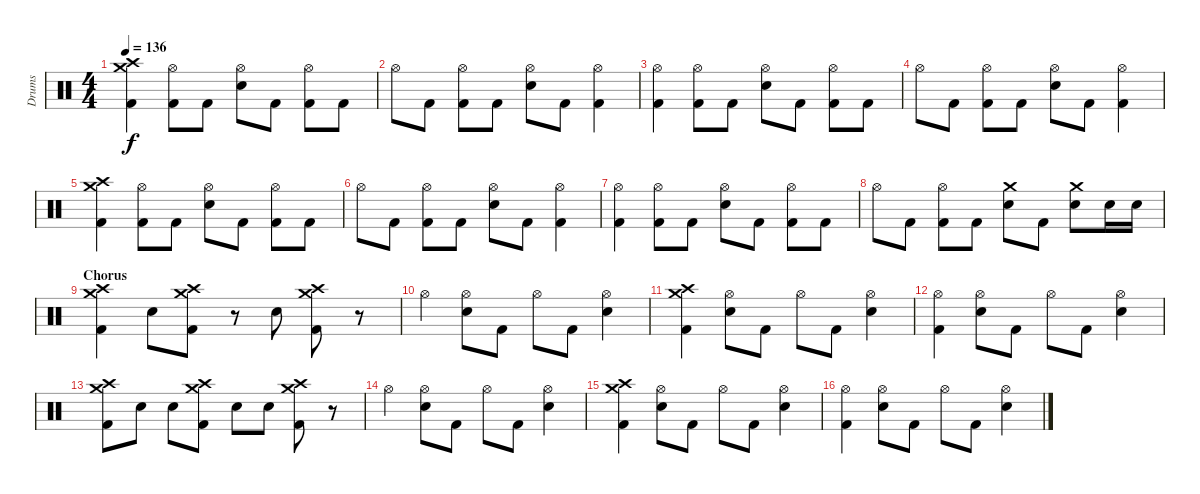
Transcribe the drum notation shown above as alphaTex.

\track ("Drums" "Drums") {instrument percussion}
\staff {score}
\articulation defaults
\ts (4 4)
\tempo 136
\clef neutral
\ks c
("Crash high (hit)" "Crash medium (hit)" "Kick (hit) 2").4{dy f} ("Hi-Hat (open)" "Kick (hit) 2").8 "Kick (hit) 2".8 ("Hi-Hat (open)" "Electric Snare (hit)").8 "Kick (hit) 2".8 ("Hi-Hat (open)" "Kick (hit) 2").8 "Kick (hit) 2".8 |
"Hi-Hat (open)".8 "Kick (hit) 2".8 ("Hi-Hat (open)" "Kick (hit) 2").8 "Kick (hit) 2".8 ("Hi-Hat (open)" "Electric Snare (hit)").8 "Kick (hit) 2".8 ("Hi-Hat (open)" "Kick (hit) 2").4 |
("Hi-Hat (open)" "Kick (hit) 2").4 ("Hi-Hat (open)" "Kick (hit) 2").8 "Kick (hit) 2".8 ("Hi-Hat (open)" "Electric Snare (hit)").8 "Kick (hit) 2".8 ("Hi-Hat (open)" "Kick (hit) 2").8 "Kick (hit) 2".8 |
"Hi-Hat (open)".8 "Kick (hit) 2".8 ("Hi-Hat (open)" "Kick (hit) 2").8 "Kick (hit) 2".8 ("Hi-Hat (open)" "Electric Snare (hit)").8 "Kick (hit) 2".8 ("Hi-Hat (open)" "Kick (hit) 2").4 |
("Crash high (hit)" "Crash medium (hit)" "Kick (hit) 2").4 ("Hi-Hat (open)" "Kick (hit) 2").8 "Kick (hit) 2".8 ("Hi-Hat (open)" "Electric Snare (hit)").8 "Kick (hit) 2".8 ("Hi-Hat (open)" "Kick (hit) 2").8 "Kick (hit) 2".8 |
"Hi-Hat (open)".8 "Kick (hit) 2".8 ("Hi-Hat (open)" "Kick (hit) 2").8 "Kick (hit) 2".8 ("Hi-Hat (open)" "Electric Snare (hit)").8 "Kick (hit) 2".8 ("Hi-Hat (open)" "Kick (hit) 2").4 |
("Hi-Hat (open)" "Kick (hit) 2").4 ("Hi-Hat (open)" "Kick (hit) 2").8 "Kick (hit) 2".8 ("Hi-Hat (open)" "Electric Snare (hit)").8 "Kick (hit) 2".8 ("Hi-Hat (open)" "Kick (hit) 2").8 "Kick (hit) 2".8 |
"Hi-Hat (open)".8 "Kick (hit) 2".8 ("Hi-Hat (open)" "Kick (hit) 2").8 "Kick (hit) 2".8 ("Crash medium (hit)" "Electric Snare (hit)").8 "Kick (hit) 2".8 ("Crash medium (hit)" "Electric Snare (hit)").8 "Electric Snare (hit)".16 "Electric Snare (hit)".16 |
\section ("" "Chorus")
("Crash high (hit)" "Crash medium (hit)" "Kick (hit) 2").4 "Electric Snare (hit)".8 ("Crash high (hit)" "Crash medium (hit)" "Kick (hit) 2").8 r.8 "Electric Snare (hit)".8 ("Crash high (hit)" "Crash medium (hit)" "Kick (hit) 2").8 r.8 |
"Hi-Hat (open)".4 ("Hi-Hat (open)" "Electric Snare (hit)").8 "Kick (hit) 2".8 "Hi-Hat (open)".8 "Kick (hit) 2".8 ("Hi-Hat (open)" "Electric Snare (hit)").4 |
("Crash high (hit)" "Crash medium (hit)" "Kick (hit) 2").4 ("Hi-Hat (open)" "Electric Snare (hit)").8 "Kick (hit) 2".8 "Hi-Hat (open)".8 "Kick (hit) 2".8 ("Hi-Hat (open)" "Electric Snare (hit)").4 |
("Hi-Hat (open)" "Kick (hit) 2").4 ("Hi-Hat (open)" "Electric Snare (hit)").8 "Kick (hit) 2".8 "Hi-Hat (open)".8 "Kick (hit) 2".8 ("Hi-Hat (open)" "Electric Snare (hit)").4 |
("Crash high (hit)" "Crash medium (hit)" "Kick (hit) 2").8 "Electric Snare (hit)".8 "Electric Snare (hit)".8 ("Crash high (hit)" "Crash medium (hit)" "Kick (hit) 2").8 "Electric Snare (hit)".8 "Electric Snare (hit)".8 ("Crash high (hit)" "Crash medium (hit)" "Kick (hit) 2").8 r.8 |
"Hi-Hat (open)".4 ("Hi-Hat (open)" "Electric Snare (hit)").8 "Kick (hit) 2".8 "Hi-Hat (open)".8 "Kick (hit) 2".8 ("Hi-Hat (open)" "Electric Snare (hit)").4 |
("Crash high (hit)" "Crash medium (hit)" "Kick (hit) 2").4 ("Hi-Hat (open)" "Electric Snare (hit)").8 "Kick (hit) 2".8 "Hi-Hat (open)".8 "Kick (hit) 2".8 ("Hi-Hat (open)" "Electric Snare (hit)").4 |
("Hi-Hat (open)" "Kick (hit) 2").4 ("Hi-Hat (open)" "Electric Snare (hit)").8 "Kick (hit) 2".8 "Hi-Hat (open)".8 "Kick (hit) 2".8 ("Hi-Hat (open)" "Electric Snare (hit)").4
